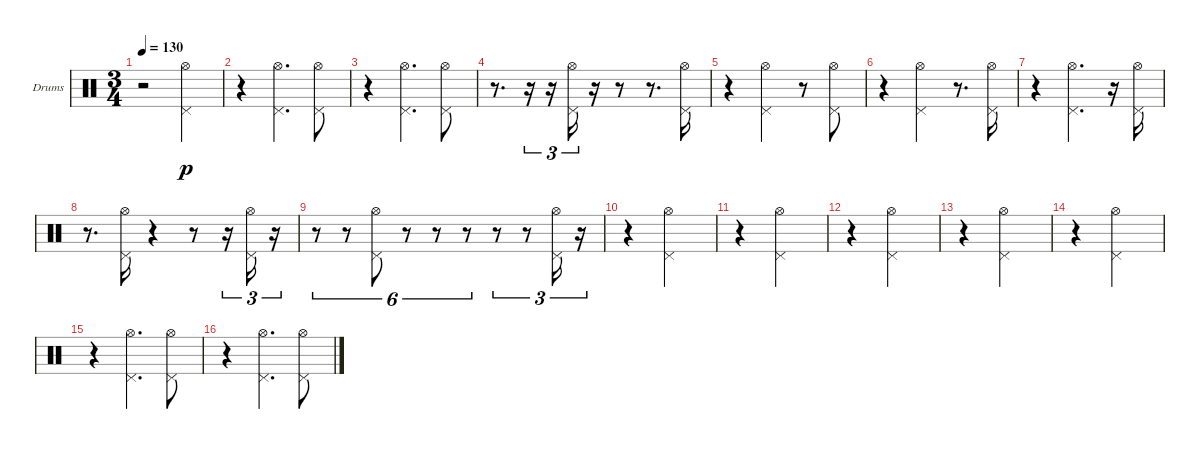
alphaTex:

\bracketExtendMode groupsimilarinstruments
\firstSystemTrackNameOrientation horizontal
\otherSystemsTrackNameOrientation horizontal
\track ("HH" "Drums") {instrument percussion}
\staff {score}
\articulation defaults
\ts (3 4)
\tempo 130
\clef neutral
\ks c
r.2{dy p} ("Pedal Hi-Hat (hit)" "Hi-Hat (open)").4 |
r.4 ("Pedal Hi-Hat (hit)" "Hi-Hat (open)").4{d} ("Pedal Hi-Hat (hit)" "Hi-Hat (open)").8 |
r.4 ("Pedal Hi-Hat (hit)" "Hi-Hat (open)").4{d} ("Pedal Hi-Hat (hit)" "Hi-Hat (open)").8 |
r.8{d} r.16{tu (3 2)} r.16{tu (3 2)} ("Pedal Hi-Hat (hit)" "Hi-Hat (open)").16{tu (3 2)} r.16 r.8 r.8{d} ("Pedal Hi-Hat (hit)" "Hi-Hat (open)").16 |
r.4 ("Pedal Hi-Hat (hit)" "Hi-Hat (open)").4 r.8 ("Pedal Hi-Hat (hit)" "Hi-Hat (open)").8 |
r.4 ("Pedal Hi-Hat (hit)" "Hi-Hat (open)").4 r.8{d} ("Pedal Hi-Hat (hit)" "Hi-Hat (open)").16 |
r.4 ("Pedal Hi-Hat (hit)" "Hi-Hat (open)").4{d} r.16 ("Pedal Hi-Hat (hit)" "Hi-Hat (open)").16 |
r.8{d} ("Pedal Hi-Hat (hit)" "Hi-Hat (open)").16 r.4 r.8 r.16{tu (3 2)} ("Pedal Hi-Hat (hit)" "Hi-Hat (open)").16{tu (3 2)} r.16{tu (3 2)} |
r.8{tu (6 4)} r.8{tu (6 4)} ("Pedal Hi-Hat (hit)" "Hi-Hat (open)").8{tu (6 4)} r.8{tu (6 4)} r.8{tu (6 4)} r.8{tu (6 4)} r.8{tu (3 2)} r.8{tu (3 2)} ("Pedal Hi-Hat (hit)" "Hi-Hat (open)").16{tu (3 2)} r.16{tu (3 2)} |
r.4 ("Pedal Hi-Hat (hit)" "Hi-Hat (open)").2 |
r.4 ("Pedal Hi-Hat (hit)" "Hi-Hat (open)").2 |
r.4 ("Pedal Hi-Hat (hit)" "Hi-Hat (open)").2 |
r.4 ("Pedal Hi-Hat (hit)" "Hi-Hat (open)").2 |
r.4 ("Pedal Hi-Hat (hit)" "Hi-Hat (open)").2 |
r.4 ("Pedal Hi-Hat (hit)" "Hi-Hat (open)").4{d} ("Pedal Hi-Hat (hit)" "Hi-Hat (open)").8 |
r.4 ("Pedal Hi-Hat (hit)" "Hi-Hat (open)").4{d} ("Pedal Hi-Hat (hit)" "Hi-Hat (open)").8
